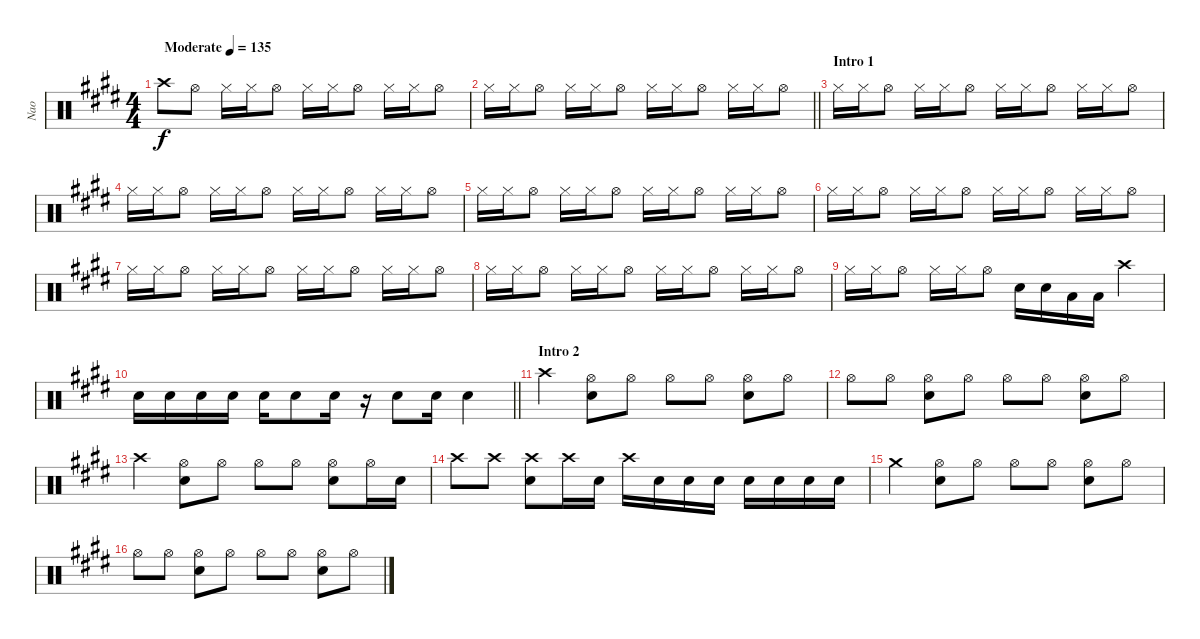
\track ("Nao" "Nao") {instrument percussion}
\staff {score}
\articulation defaults
\ts (4 4)
\tempo (135 "Moderate")
\clef neutral
\ks e "Crash high (hit)".8{dy f} "Hi-Hat (open)".8 "Hi-Hat (closed)".16 "Hi-Hat (closed)".16 "Hi-Hat (open)".8 "Hi-Hat (closed)".16 "Hi-Hat (closed)".16 "Hi-Hat (open)".8 "Hi-Hat (closed)".16 "Hi-Hat (closed)".16 "Hi-Hat (open)".8
|
\barLineRight lightlight "Hi-Hat (closed)".16 "Hi-Hat (closed)".16 "Hi-Hat (open)".8 "Hi-Hat (closed)".16 "Hi-Hat (closed)".16 "Hi-Hat (open)".8 "Hi-Hat (closed)".16 "Hi-Hat (closed)".16 "Hi-Hat (open)".8 "Hi-Hat (closed)".16 "Hi-Hat (closed)".16 "Hi-Hat (open)".8
|
\section ("" "Intro 1")
"Hi-Hat (closed)".16 "Hi-Hat (closed)".16 "Hi-Hat (open)".8 "Hi-Hat (closed)".16 "Hi-Hat (closed)".16 "Hi-Hat (open)".8 "Hi-Hat (closed)".16 "Hi-Hat (closed)".16 "Hi-Hat (open)".8 "Hi-Hat (closed)".16 "Hi-Hat (closed)".16 "Hi-Hat (open)".8 |
"Hi-Hat (closed)".16 "Hi-Hat (closed)".16 "Hi-Hat (open)".8 "Hi-Hat (closed)".16 "Hi-Hat (closed)".16 "Hi-Hat (open)".8 "Hi-Hat (closed)".16 "Hi-Hat (closed)".16 "Hi-Hat (open)".8 "Hi-Hat (closed)".16 "Hi-Hat (closed)".16 "Hi-Hat (open)".8 |
"Hi-Hat (closed)".16 "Hi-Hat (closed)".16 "Hi-Hat (open)".8 "Hi-Hat (closed)".16 "Hi-Hat (closed)".16 "Hi-Hat (open)".8 "Hi-Hat (closed)".16 "Hi-Hat (closed)".16 "Hi-Hat (open)".8 "Hi-Hat (closed)".16 "Hi-Hat (closed)".16 "Hi-Hat (open)".8 |
"Hi-Hat (closed)".16 "Hi-Hat (closed)".16 "Hi-Hat (open)".8 "Hi-Hat (closed)".16 "Hi-Hat (closed)".16 "Hi-Hat (open)".8 "Hi-Hat (closed)".16 "Hi-Hat (closed)".16 "Hi-Hat (open)".8 "Hi-Hat (closed)".16 "Hi-Hat (closed)".16 "Hi-Hat (open)".8 |
"Hi-Hat (closed)".16 "Hi-Hat (closed)".16 "Hi-Hat (open)".8 "Hi-Hat (closed)".16 "Hi-Hat (closed)".16 "Hi-Hat (open)".8 "Hi-Hat (closed)".16 "Hi-Hat (closed)".16 "Hi-Hat (open)".8 "Hi-Hat (closed)".16 "Hi-Hat (closed)".16 "Hi-Hat (open)".8 |
"Hi-Hat (closed)".16 "Hi-Hat (closed)".16 "Hi-Hat (open)".8 "Hi-Hat (closed)".16 "Hi-Hat (closed)".16 "Hi-Hat (open)".8 "Hi-Hat (closed)".16 "Hi-Hat (closed)".16 "Hi-Hat (open)".8 "Hi-Hat (closed)".16 "Hi-Hat (closed)".16 "Hi-Hat (open)".8 |
"Hi-Hat (closed)".16 "Hi-Hat (closed)".16 "Hi-Hat (open)".8 "Hi-Hat (closed)".16 "Hi-Hat (closed)".16 "Hi-Hat (open)".8 "Snare (hit) 2".16 "Snare (hit) 2".16 "Low Tom (hit)".16 "Low Tom (hit)".16 "Crash high (hit)".4 |
\barLineRight lightlight "Snare (hit) 2".16 "Snare (hit) 2".16 "Snare (hit) 2".16 "Snare (hit) 2".16 "Snare (hit) 2".16 "Snare (hit) 2".8 "Snare (hit) 2".16
r.16 "Snare (hit) 2".8 "Snare (hit) 2".16 "Snare (hit) 2".4 |
\section ("" "Intro 2")
"Crash high (hit)".4 ("Hi-Hat (open)" "Snare (hit) 2").8 "Hi-Hat (open)".8 "Hi-Hat (open)".8 "Hi-Hat (open)".8 ("Hi-Hat (open)" "Snare (hit) 2").8 "Hi-Hat (open)".8 |
"Hi-Hat (open)".8 "Hi-Hat (open)".8 ("Hi-Hat (open)" "Snare (hit) 2").8 "Hi-Hat (open)".8 "Hi-Hat (open)".8 "Hi-Hat (open)".8 ("Hi-Hat (open)" "Snare (hit) 2").8 "Hi-Hat (open)".8 |
"Crash high (hit)".4 ("Hi-Hat (open)" "Snare (hit) 2").8 "Hi-Hat (open)".8 "Hi-Hat (open)".8 "Hi-Hat (open)".8 ("Hi-Hat (open)" "Snare (hit) 2").8 "Hi-Hat (open)".16 "Snare (hit) 2".16 |
"Crash high (hit)".8 "Crash high (hit)".8 ("Crash high (hit)" "Snare (hit) 2").8 "Crash high (hit)".16 "Snare (hit) 2".16 "Crash high (hit)".16 "Snare (hit) 2".16 "Snare (hit) 2".16 "Snare (hit) 2".16 "Snare (hit) 2".16 "Snare (hit) 2".16 "Snare (hit) 2".16 "Snare (hit) 2".16 |
"Crash medium (hit)".4 ("Hi-Hat (open)" "Snare (hit) 2").8 "Hi-Hat (open)".8 "Hi-Hat (open)".8 "Hi-Hat (open)".8 ("Hi-Hat (open)" "Snare (hit) 2").8 "Hi-Hat (open)".8 |
"Hi-Hat (open)".8 "Hi-Hat (open)".8 ("Hi-Hat (open)" "Snare (hit) 2").8 "Hi-Hat (open)".8 "Hi-Hat (open)".8 "Hi-Hat (open)".8 ("Hi-Hat (open)" "Snare (hit) 2").8 "Hi-Hat (open)".8
